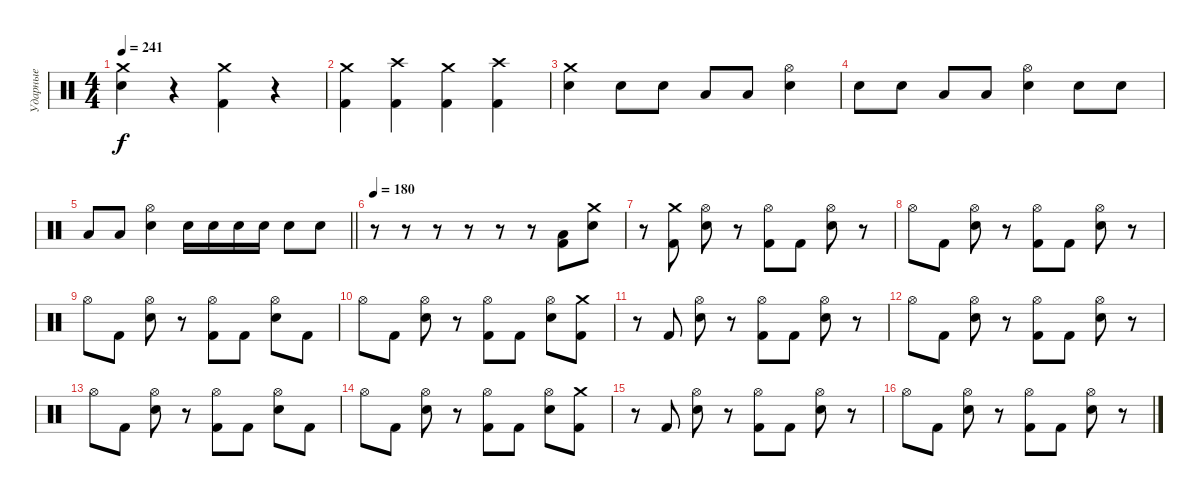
\track ("Ударные" "Ударные") {instrument percussion}
\staff {score}
\articulation defaults
\ts (4 4)
\tempo 241
\clef neutral
\ks c
("Crash medium (hit)" "Electric Snare (hit)").4{dy f} r.4 ("Crash medium (hit)" "Kick (hit) 2").4 r.4 |
("Crash medium (hit)" "Kick (hit) 2").4 ("Crash high (hit)" "Kick (hit) 2").4 ("Crash medium (hit)" "Kick (hit) 2").4 ("Crash high (hit)" "Kick (hit) 2").4 |
("Crash medium (hit)" "Electric Snare (hit)").4 "Electric Snare (hit)".8 "Electric Snare (hit)".8 "Low Tom (hit)".8 "Low Tom (hit)".8 ("Hi-Hat (open)" "Electric Snare (hit)").4 |
"Electric Snare (hit)".8 "Electric Snare (hit)".8 "Low Tom (hit)".8 "Low Tom (hit)".8 ("Hi-Hat (open)" "Electric Snare (hit)").4 "Electric Snare (hit)".8 "Electric Snare (hit)".8 |
\barLineRight lightlight "Low Tom (hit)".8 "Low Tom (hit)".8
("Hi-Hat (open)" "Electric Snare (hit)").4 "Electric Snare (hit)".16 "Electric Snare (hit)".16 "Electric Snare (hit)".16 "Electric Snare (hit)".16 "Electric Snare (hit)".8 "Electric Snare (hit)".8 |
\tempo 180
r.8 r.8 r.8 r.8 r.8 r.8 ("Low Tom (hit)" "Kick (hit) 2").8 ("Crash medium (hit)" "Electric Snare (hit)").8 |
r.8 ("Crash medium (hit)" "Kick (hit) 2").8 ("Hi-Hat (open)" "Electric Snare (hit)").8 r.8 ("Hi-Hat (open)" "Kick (hit) 2").8 "Kick (hit) 2".8 ("Hi-Hat (open)" "Electric Snare (hit)").8 r.8 |
"Hi-Hat (open)".8 "Kick (hit) 2".8 ("Hi-Hat (open)" "Electric Snare (hit)").8 r.8 ("Hi-Hat (open)" "Kick (hit) 2").8 "Kick (hit) 2".8 ("Hi-Hat (open)" "Electric Snare (hit)").8 r.8 |
"Hi-Hat (open)".8 "Kick (hit) 2".8 ("Hi-Hat (open)" "Electric Snare (hit)").8 r.8 ("Hi-Hat (open)" "Kick (hit) 2").8 "Kick (hit) 2".8 ("Hi-Hat (open)" "Electric Snare (hit)").8 "Kick (hit) 2".8 |
"Hi-Hat (open)".8 "Kick (hit) 2".8 ("Hi-Hat (open)" "Electric Snare (hit)").8 r.8 ("Hi-Hat (open)" "Kick (hit) 2").8 "Kick (hit) 2".8 ("Hi-Hat (open)" "Electric Snare (hit)").8 ("Crash medium (hit)" "Kick (hit) 2").8 |
r.8 "Kick (hit) 2".8 ("Hi-Hat (open)" "Electric Snare (hit)").8 r.8 ("Hi-Hat (open)" "Kick (hit) 2").8 "Kick (hit) 2".8 ("Hi-Hat (open)" "Electric Snare (hit)").8 r.8 |
"Hi-Hat (open)".8 "Kick (hit) 2".8 ("Hi-Hat (open)" "Electric Snare (hit)").8 r.8 ("Hi-Hat (open)" "Kick (hit) 2").8 "Kick (hit) 2".8 ("Hi-Hat (open)" "Electric Snare (hit)").8 r.8 |
"Hi-Hat (open)".8 "Kick (hit) 2".8 ("Hi-Hat (open)" "Electric Snare (hit)").8 r.8 ("Hi-Hat (open)" "Kick (hit) 2").8 "Kick (hit) 2".8 ("Hi-Hat (open)" "Electric Snare (hit)").8 "Kick (hit) 2".8 |
"Hi-Hat (open)".8 "Kick (hit) 2".8 ("Hi-Hat (open)" "Electric Snare (hit)").8 r.8 ("Hi-Hat (open)" "Kick (hit) 2").8 "Kick (hit) 2".8 ("Hi-Hat (open)" "Electric Snare (hit)").8 ("Crash medium (hit)" "Kick (hit) 2").8 |
r.8 "Kick (hit) 2".8 ("Hi-Hat (open)" "Electric Snare (hit)").8 r.8 ("Hi-Hat (open)" "Kick (hit) 2").8 "Kick (hit) 2".8 ("Hi-Hat (open)" "Electric Snare (hit)").8 r.8 |
"Hi-Hat (open)".8 "Kick (hit) 2".8 ("Hi-Hat (open)" "Electric Snare (hit)").8 r.8 ("Hi-Hat (open)" "Kick (hit) 2").8 "Kick (hit) 2".8 ("Hi-Hat (open)" "Electric Snare (hit)").8 r.8
